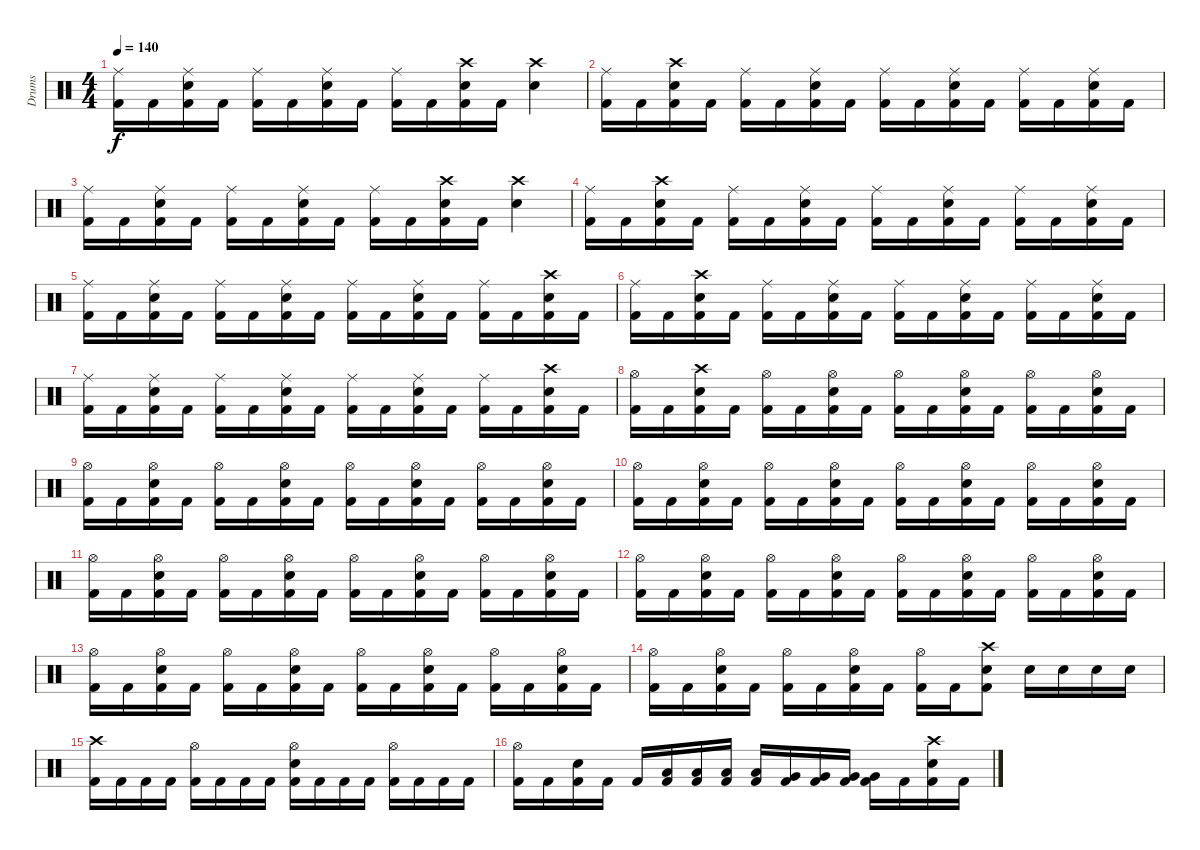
\track ("Drums" "Drums") {instrument percussion}
\staff {score}
\articulation defaults
\ts (4 4)
\tempo 140
\clef neutral
\ks c
("Ride (middle)" "Kick (hit) 2").16{dy f} "Kick (hit) 2".16 ("Ride (middle)" "Electric Snare (hit)" "Kick (hit) 2").16 "Kick (hit) 2".16 ("Ride (middle)" "Kick (hit) 2").16 "Kick (hit) 2".16 ("Ride (middle)" "Electric Snare (hit)" "Kick (hit) 2").16 "Kick (hit) 2".16 ("Ride (middle)" "Kick (hit) 2").16 "Kick (hit) 2".16 ("Crash high (hit)" "Electric Snare (hit)" "Kick (hit) 2").16 "Kick (hit) 2".16 ("Crash high (hit)" "Electric Snare (hit)").4 |
("Ride (middle)" "Kick (hit) 2").16 "Kick (hit) 2".16 ("Crash high (hit)" "Electric Snare (hit)" "Kick (hit) 2").16 "Kick (hit) 2".16 ("Ride (middle)" "Kick (hit) 2").16 "Kick (hit) 2".16 ("Ride (middle)" "Electric Snare (hit)" "Kick (hit) 2").16 "Kick (hit) 2".16 ("Ride (middle)" "Kick (hit) 2").16 "Kick (hit) 2".16 ("Ride (middle)" "Electric Snare (hit)" "Kick (hit) 2").16 "Kick (hit) 2".16 ("Ride (middle)" "Kick (hit) 2").16 "Kick (hit) 2".16 ("Ride (middle)" "Electric Snare (hit)" "Kick (hit) 2").16 "Kick (hit) 2".16 |
("Ride (middle)" "Kick (hit) 2").16 "Kick (hit) 2".16 ("Ride (middle)" "Electric Snare (hit)" "Kick (hit) 2").16 "Kick (hit) 2".16 ("Ride (middle)" "Kick (hit) 2").16 "Kick (hit) 2".16 ("Ride (middle)" "Electric Snare (hit)" "Kick (hit) 2").16 "Kick (hit) 2".16 ("Ride (middle)" "Kick (hit) 2").16 "Kick (hit) 2".16 ("Crash high (hit)" "Electric Snare (hit)" "Kick (hit) 2").16 "Kick (hit) 2".16 ("Crash high (hit)" "Electric Snare (hit)").4 |
("Ride (middle)" "Kick (hit) 2").16 "Kick (hit) 2".16 ("Crash high (hit)" "Electric Snare (hit)" "Kick (hit) 2").16 "Kick (hit) 2".16 ("Ride (middle)" "Kick (hit) 2").16 "Kick (hit) 2".16 ("Ride (middle)" "Electric Snare (hit)" "Kick (hit) 2").16 "Kick (hit) 2".16 ("Ride (middle)" "Kick (hit) 2").16 "Kick (hit) 2".16 ("Ride (middle)" "Electric Snare (hit)" "Kick (hit) 2").16 "Kick (hit) 2".16 ("Ride (middle)" "Kick (hit) 2").16 "Kick (hit) 2".16 ("Ride (middle)" "Electric Snare (hit)" "Kick (hit) 2").16 "Kick (hit) 2".16 |
("Ride (middle)" "Kick (hit) 2").16 "Kick (hit) 2".16 ("Ride (middle)" "Electric Snare (hit)" "Kick (hit) 2").16 "Kick (hit) 2".16 ("Ride (middle)" "Kick (hit) 2").16 "Kick (hit) 2".16 ("Ride (middle)" "Electric Snare (hit)" "Kick (hit) 2").16 "Kick (hit) 2".16 ("Ride (middle)" "Kick (hit) 2").16 "Kick (hit) 2".16 ("Ride (middle)" "Electric Snare (hit)" "Kick (hit) 2").16 "Kick (hit) 2".16 ("Ride (middle)" "Kick (hit) 2").16 "Kick (hit) 2".16 ("Crash high (hit)" "Electric Snare (hit)" "Kick (hit) 2").16 "Kick (hit) 2".16 |
("Ride (middle)" "Kick (hit) 2").16 "Kick (hit) 2".16 ("Crash high (hit)" "Electric Snare (hit)" "Kick (hit) 2").16 "Kick (hit) 2".16 ("Ride (middle)" "Kick (hit) 2").16 "Kick (hit) 2".16 ("Ride (middle)" "Electric Snare (hit)" "Kick (hit) 2").16 "Kick (hit) 2".16 ("Ride (middle)" "Kick (hit) 2").16 "Kick (hit) 2".16 ("Ride (middle)" "Electric Snare (hit)" "Kick (hit) 2").16 "Kick (hit) 2".16 ("Ride (middle)" "Kick (hit) 2").16 "Kick (hit) 2".16 ("Ride (middle)" "Electric Snare (hit)" "Kick (hit) 2").16 "Kick (hit) 2".16 |
("Ride (middle)" "Kick (hit) 2").16 "Kick (hit) 2".16 ("Ride (middle)" "Electric Snare (hit)" "Kick (hit) 2").16 "Kick (hit) 2".16 ("Ride (middle)" "Kick (hit) 2").16 "Kick (hit) 2".16 ("Ride (middle)" "Electric Snare (hit)" "Kick (hit) 2").16 "Kick (hit) 2".16 ("Ride (middle)" "Kick (hit) 2").16 "Kick (hit) 2".16 ("Ride (middle)" "Electric Snare (hit)" "Kick (hit) 2").16 "Kick (hit) 2".16 ("Ride (middle)" "Kick (hit) 2").16 "Kick (hit) 2".16 ("Crash high (hit)" "Electric Snare (hit)" "Kick (hit) 2").16 "Kick (hit) 2".16 |
("Hi-Hat (open)" "Kick (hit) 2").16 "Kick (hit) 2".16 ("Crash high (hit)" "Electric Snare (hit)" "Kick (hit) 2").16 "Kick (hit) 2".16 ("Hi-Hat (open)" "Kick (hit) 2").16 "Kick (hit) 2".16 ("Hi-Hat (open)" "Electric Snare (hit)" "Kick (hit) 2").16 "Kick (hit) 2".16 ("Hi-Hat (open)" "Kick (hit) 2").16 "Kick (hit) 2".16 ("Hi-Hat (open)" "Electric Snare (hit)" "Kick (hit) 2").16 "Kick (hit) 2".16 ("Hi-Hat (open)" "Kick (hit) 2").16 "Kick (hit) 2".16 ("Hi-Hat (open)" "Electric Snare (hit)" "Kick (hit) 2").16 "Kick (hit) 2".16 |
("Hi-Hat (open)" "Kick (hit) 2").16 "Kick (hit) 2".16 ("Hi-Hat (open)" "Electric Snare (hit)" "Kick (hit) 2").16 "Kick (hit) 2".16 ("Hi-Hat (open)" "Kick (hit) 2").16 "Kick (hit) 2".16 ("Hi-Hat (open)" "Electric Snare (hit)" "Kick (hit) 2").16 "Kick (hit) 2".16 ("Hi-Hat (open)" "Kick (hit) 2").16 "Kick (hit) 2".16 ("Hi-Hat (open)" "Electric Snare (hit)" "Kick (hit) 2").16 "Kick (hit) 2".16 ("Hi-Hat (open)" "Kick (hit) 2").16 "Kick (hit) 2".16 ("Hi-Hat (open)" "Electric Snare (hit)" "Kick (hit) 2").16 "Kick (hit) 2".16 |
("Hi-Hat (open)" "Kick (hit) 2").16 "Kick (hit) 2".16 ("Hi-Hat (open)" "Electric Snare (hit)" "Kick (hit) 2").16 "Kick (hit) 2".16 ("Hi-Hat (open)" "Kick (hit) 2").16 "Kick (hit) 2".16 ("Hi-Hat (open)" "Electric Snare (hit)" "Kick (hit) 2").16 "Kick (hit) 2".16 ("Hi-Hat (open)" "Kick (hit) 2").16 "Kick (hit) 2".16 ("Hi-Hat (open)" "Electric Snare (hit)" "Kick (hit) 2").16 "Kick (hit) 2".16 ("Hi-Hat (open)" "Kick (hit) 2").16 "Kick (hit) 2".16 ("Hi-Hat (open)" "Electric Snare (hit)" "Kick (hit) 2").16 "Kick (hit) 2".16 |
("Hi-Hat (open)" "Kick (hit) 2").16 "Kick (hit) 2".16 ("Hi-Hat (open)" "Electric Snare (hit)" "Kick (hit) 2").16 "Kick (hit) 2".16 ("Hi-Hat (open)" "Kick (hit) 2").16 "Kick (hit) 2".16 ("Hi-Hat (open)" "Electric Snare (hit)" "Kick (hit) 2").16 "Kick (hit) 2".16 ("Hi-Hat (open)" "Kick (hit) 2").16 "Kick (hit) 2".16 ("Hi-Hat (open)" "Electric Snare (hit)" "Kick (hit) 2").16 "Kick (hit) 2".16 ("Hi-Hat (open)" "Kick (hit) 2").16 "Kick (hit) 2".16 ("Hi-Hat (open)" "Electric Snare (hit)" "Kick (hit) 2").16 "Kick (hit) 2".16 |
("Hi-Hat (open)" "Kick (hit) 2").16 "Kick (hit) 2".16 ("Hi-Hat (open)" "Electric Snare (hit)" "Kick (hit) 2").16 "Kick (hit) 2".16 ("Hi-Hat (open)" "Kick (hit) 2").16 "Kick (hit) 2".16 ("Hi-Hat (open)" "Electric Snare (hit)" "Kick (hit) 2").16 "Kick (hit) 2".16 ("Hi-Hat (open)" "Kick (hit) 2").16 "Kick (hit) 2".16 ("Hi-Hat (open)" "Electric Snare (hit)" "Kick (hit) 2").16 "Kick (hit) 2".16 ("Hi-Hat (open)" "Kick (hit) 2").16 "Kick (hit) 2".16 ("Hi-Hat (open)" "Electric Snare (hit)" "Kick (hit) 2").16 "Kick (hit) 2".16 |
("Hi-Hat (open)" "Kick (hit) 2").16 "Kick (hit) 2".16 ("Hi-Hat (open)" "Electric Snare (hit)" "Kick (hit) 2").16 "Kick (hit) 2".16 ("Hi-Hat (open)" "Kick (hit) 2").16 "Kick (hit) 2".16 ("Hi-Hat (open)" "Electric Snare (hit)" "Kick (hit) 2").16 "Kick (hit) 2".16 ("Hi-Hat (open)" "Kick (hit) 2").16 "Kick (hit) 2".16 ("Hi-Hat (open)" "Electric Snare (hit)" "Kick (hit) 2").16 "Kick (hit) 2".16 ("Hi-Hat (open)" "Kick (hit) 2").16 "Kick (hit) 2".16 ("Hi-Hat (open)" "Electric Snare (hit)" "Kick (hit) 2").16 "Kick (hit) 2".16 |
("Hi-Hat (open)" "Kick (hit) 2").16 "Kick (hit) 2".16 ("Hi-Hat (open)" "Electric Snare (hit)" "Kick (hit) 2").16 "Kick (hit) 2".16 ("Hi-Hat (open)" "Kick (hit) 2").16 "Kick (hit) 2".16 ("Hi-Hat (open)" "Electric Snare (hit)" "Kick (hit) 2").16 "Kick (hit) 2".16 ("Hi-Hat (open)" "Kick (hit) 2").16 "Kick (hit) 2".16 ("Crash high (hit)" "Electric Snare (hit)" "Kick (hit) 2").8 "Electric Snare (hit)".16 "Electric Snare (hit)".16 "Electric Snare (hit)".16 "Electric Snare (hit)".16 |
("Crash high (hit)" "Kick (hit) 2").16 "Kick (hit) 2".16 "Kick (hit) 2".16 "Kick (hit) 2".16 ("Hi-Hat (open)" "Kick (hit) 2").16 "Kick (hit) 2".16 "Kick (hit) 2".16 "Kick (hit) 2".16 ("Hi-Hat (open)" "Electric Snare (hit)" "Kick (hit) 2").16 "Kick (hit) 2".16 "Kick (hit) 2".16 "Kick (hit) 2".16 ("Hi-Hat (open)" "Kick (hit) 2").16 "Kick (hit) 2".16 "Kick (hit) 2".16 "Kick (hit) 2".16 |
("Hi-Hat (open)" "Kick (hit) 2").16 "Kick (hit) 2".16 ("Electric Snare (hit)" "Kick (hit) 2").16 "Kick (hit) 2".16 "Kick (hit) 2".16 ("Low Tom (hit)" "Kick (hit) 2").16 ("Low Tom (hit)" "Kick (hit) 2").16 ("Low Tom (hit)" "Kick (hit) 2").16 ("Low Tom (hit)" "Kick (hit) 2").16 ("Very Low Tom (hit)" "Kick (hit) 2").16 ("Very Low Tom (hit)" "Kick (hit) 2").16 ("Very Low Tom (hit)" "Kick (hit) 2").16 ("Very Low Tom (hit)" "Kick (hit) 2").16 "Kick (hit) 2".16 ("Crash high (hit)" "Electric Snare (hit)" "Kick (hit) 2").16 "Kick (hit) 2".16
